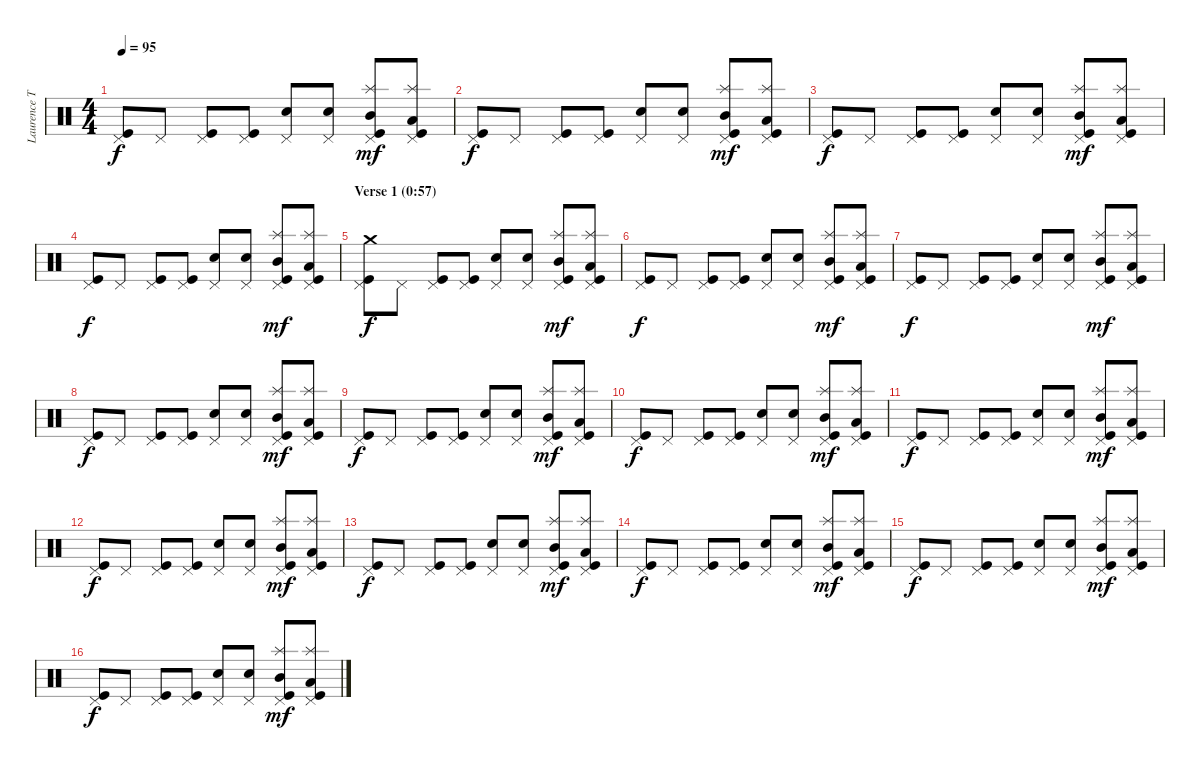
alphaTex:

\track ("Laurence Tolhurst (drums)" "Laurence T") {instrument percussion}
\staff {score}
\articulation defaults
\ts (4 4)
\tempo 95
\clef neutral
\ks c
("Pedal Hi-Hat (hit)" "Kick (hit)").8{dy f} "Pedal Hi-Hat (hit)".8 ("Pedal Hi-Hat (hit)" "Kick (hit)").8 ("Pedal Hi-Hat (hit)" "Kick (hit)").8 ("Pedal Hi-Hat (hit)" "Snare (hit) 2").8 ("Pedal Hi-Hat (hit)" "Snare (hit) 2").8 ("Splash (hit)" "Mid Tom (hit)" "Pedal Hi-Hat (hit)" "Kick (hit)").8{dy mf} ("Splash (hit)" "Low Tom (hit)" "Pedal Hi-Hat (hit)" "Kick (hit)").8 |
("Pedal Hi-Hat (hit)" "Kick (hit)").8{dy f} "Pedal Hi-Hat (hit)".8 ("Pedal Hi-Hat (hit)" "Kick (hit)").8 ("Pedal Hi-Hat (hit)" "Kick (hit)").8 ("Pedal Hi-Hat (hit)" "Snare (hit) 2").8 ("Pedal Hi-Hat (hit)" "Snare (hit) 2").8 ("Splash (hit)" "Mid Tom (hit)" "Pedal Hi-Hat (hit)" "Kick (hit)").8{dy mf} ("Splash (hit)" "Low Tom (hit)" "Pedal Hi-Hat (hit)" "Kick (hit)").8 |
("Pedal Hi-Hat (hit)" "Kick (hit)").8{dy f} "Pedal Hi-Hat (hit)".8 ("Pedal Hi-Hat (hit)" "Kick (hit)").8 ("Pedal Hi-Hat (hit)" "Kick (hit)").8 ("Pedal Hi-Hat (hit)" "Snare (hit) 2").8 ("Pedal Hi-Hat (hit)" "Snare (hit) 2").8 ("Splash (hit)" "Mid Tom (hit)" "Pedal Hi-Hat (hit)" "Kick (hit)").8{dy mf} ("Splash (hit)" "Low Tom (hit)" "Pedal Hi-Hat (hit)" "Kick (hit)").8 |
("Pedal Hi-Hat (hit)" "Kick (hit)").8{dy f} "Pedal Hi-Hat (hit)".8 ("Pedal Hi-Hat (hit)" "Kick (hit)").8 ("Pedal Hi-Hat (hit)" "Kick (hit)").8 ("Pedal Hi-Hat (hit)" "Snare (hit) 2").8 ("Pedal Hi-Hat (hit)" "Snare (hit) 2").8 ("Splash (hit)" "Mid Tom (hit)" "Pedal Hi-Hat (hit)" "Kick (hit)").8{dy mf} ("Splash (hit)" "Low Tom (hit)" "Pedal Hi-Hat (hit)" "Kick (hit)").8 |
\section ("" "Verse 1 (0:57)")
("Crash medium (hit)" "Pedal Hi-Hat (hit)" "Kick (hit)").8{dy f} "Pedal Hi-Hat (hit)".8 ("Pedal Hi-Hat (hit)" "Kick (hit)").8 ("Pedal Hi-Hat (hit)" "Kick (hit)").8 ("Pedal Hi-Hat (hit)" "Snare (hit) 2").8 ("Pedal Hi-Hat (hit)" "Snare (hit) 2").8 ("Splash (hit)" "Mid Tom (hit)" "Pedal Hi-Hat (hit)" "Kick (hit)").8{dy mf} ("Splash (hit)" "Low Tom (hit)" "Pedal Hi-Hat (hit)" "Kick (hit)").8 |
("Pedal Hi-Hat (hit)" "Kick (hit)").8{dy f} "Pedal Hi-Hat (hit)".8 ("Pedal Hi-Hat (hit)" "Kick (hit)").8 ("Pedal Hi-Hat (hit)" "Kick (hit)").8 ("Pedal Hi-Hat (hit)" "Snare (hit) 2").8 ("Pedal Hi-Hat (hit)" "Snare (hit) 2").8 ("Splash (hit)" "Mid Tom (hit)" "Pedal Hi-Hat (hit)" "Kick (hit)").8{dy mf} ("Splash (hit)" "Low Tom (hit)" "Pedal Hi-Hat (hit)" "Kick (hit)").8 |
("Pedal Hi-Hat (hit)" "Kick (hit)").8{dy f} "Pedal Hi-Hat (hit)".8 ("Pedal Hi-Hat (hit)" "Kick (hit)").8 ("Pedal Hi-Hat (hit)" "Kick (hit)").8 ("Pedal Hi-Hat (hit)" "Snare (hit) 2").8 ("Pedal Hi-Hat (hit)" "Snare (hit) 2").8 ("Splash (hit)" "Mid Tom (hit)" "Pedal Hi-Hat (hit)" "Kick (hit)").8{dy mf} ("Splash (hit)" "Low Tom (hit)" "Pedal Hi-Hat (hit)" "Kick (hit)").8 |
("Pedal Hi-Hat (hit)" "Kick (hit)").8{dy f} "Pedal Hi-Hat (hit)".8 ("Pedal Hi-Hat (hit)" "Kick (hit)").8 ("Pedal Hi-Hat (hit)" "Kick (hit)").8 ("Pedal Hi-Hat (hit)" "Snare (hit) 2").8 ("Pedal Hi-Hat (hit)" "Snare (hit) 2").8 ("Splash (hit)" "Mid Tom (hit)" "Pedal Hi-Hat (hit)" "Kick (hit)").8{dy mf} ("Splash (hit)" "Low Tom (hit)" "Pedal Hi-Hat (hit)" "Kick (hit)").8 |
("Pedal Hi-Hat (hit)" "Kick (hit)").8{dy f} "Pedal Hi-Hat (hit)".8 ("Pedal Hi-Hat (hit)" "Kick (hit)").8 ("Pedal Hi-Hat (hit)" "Kick (hit)").8 ("Pedal Hi-Hat (hit)" "Snare (hit) 2").8 ("Pedal Hi-Hat (hit)" "Snare (hit) 2").8 ("Splash (hit)" "Mid Tom (hit)" "Pedal Hi-Hat (hit)" "Kick (hit)").8{dy mf} ("Splash (hit)" "Low Tom (hit)" "Pedal Hi-Hat (hit)" "Kick (hit)").8 |
("Pedal Hi-Hat (hit)" "Kick (hit)").8{dy f} "Pedal Hi-Hat (hit)".8 ("Pedal Hi-Hat (hit)" "Kick (hit)").8 ("Pedal Hi-Hat (hit)" "Kick (hit)").8 ("Pedal Hi-Hat (hit)" "Snare (hit) 2").8 ("Pedal Hi-Hat (hit)" "Snare (hit) 2").8 ("Splash (hit)" "Mid Tom (hit)" "Pedal Hi-Hat (hit)" "Kick (hit)").8{dy mf} ("Splash (hit)" "Low Tom (hit)" "Pedal Hi-Hat (hit)" "Kick (hit)").8 |
("Pedal Hi-Hat (hit)" "Kick (hit)").8{dy f} "Pedal Hi-Hat (hit)".8 ("Pedal Hi-Hat (hit)" "Kick (hit)").8 ("Pedal Hi-Hat (hit)" "Kick (hit)").8 ("Pedal Hi-Hat (hit)" "Snare (hit) 2").8 ("Pedal Hi-Hat (hit)" "Snare (hit) 2").8 ("Splash (hit)" "Mid Tom (hit)" "Pedal Hi-Hat (hit)" "Kick (hit)").8{dy mf} ("Splash (hit)" "Low Tom (hit)" "Pedal Hi-Hat (hit)" "Kick (hit)").8 |
("Pedal Hi-Hat (hit)" "Kick (hit)").8{dy f} "Pedal Hi-Hat (hit)".8 ("Pedal Hi-Hat (hit)" "Kick (hit)").8 ("Pedal Hi-Hat (hit)" "Kick (hit)").8 ("Pedal Hi-Hat (hit)" "Snare (hit) 2").8 ("Pedal Hi-Hat (hit)" "Snare (hit) 2").8 ("Splash (hit)" "Mid Tom (hit)" "Pedal Hi-Hat (hit)" "Kick (hit)").8{dy mf} ("Splash (hit)" "Low Tom (hit)" "Pedal Hi-Hat (hit)" "Kick (hit)").8 |
("Pedal Hi-Hat (hit)" "Kick (hit)").8{dy f} "Pedal Hi-Hat (hit)".8 ("Pedal Hi-Hat (hit)" "Kick (hit)").8 ("Pedal Hi-Hat (hit)" "Kick (hit)").8 ("Pedal Hi-Hat (hit)" "Snare (hit) 2").8 ("Pedal Hi-Hat (hit)" "Snare (hit) 2").8 ("Splash (hit)" "Mid Tom (hit)" "Pedal Hi-Hat (hit)" "Kick (hit)").8{dy mf} ("Splash (hit)" "Low Tom (hit)" "Pedal Hi-Hat (hit)" "Kick (hit)").8 |
("Pedal Hi-Hat (hit)" "Kick (hit)").8{dy f} "Pedal Hi-Hat (hit)".8 ("Pedal Hi-Hat (hit)" "Kick (hit)").8 ("Pedal Hi-Hat (hit)" "Kick (hit)").8 ("Pedal Hi-Hat (hit)" "Snare (hit) 2").8 ("Pedal Hi-Hat (hit)" "Snare (hit) 2").8 ("Splash (hit)" "Mid Tom (hit)" "Pedal Hi-Hat (hit)" "Kick (hit)").8{dy mf} ("Splash (hit)" "Low Tom (hit)" "Pedal Hi-Hat (hit)" "Kick (hit)").8 |
("Pedal Hi-Hat (hit)" "Kick (hit)").8{dy f} "Pedal Hi-Hat (hit)".8 ("Pedal Hi-Hat (hit)" "Kick (hit)").8 ("Pedal Hi-Hat (hit)" "Kick (hit)").8 ("Pedal Hi-Hat (hit)" "Snare (hit) 2").8 ("Pedal Hi-Hat (hit)" "Snare (hit) 2").8 ("Splash (hit)" "Mid Tom (hit)" "Pedal Hi-Hat (hit)" "Kick (hit)").8{dy mf} ("Splash (hit)" "Low Tom (hit)" "Pedal Hi-Hat (hit)" "Kick (hit)").8 |
("Pedal Hi-Hat (hit)" "Kick (hit)").8{dy f} "Pedal Hi-Hat (hit)".8 ("Pedal Hi-Hat (hit)" "Kick (hit)").8 ("Pedal Hi-Hat (hit)" "Kick (hit)").8 ("Pedal Hi-Hat (hit)" "Snare (hit) 2").8 ("Pedal Hi-Hat (hit)" "Snare (hit) 2").8 ("Splash (hit)" "Mid Tom (hit)" "Pedal Hi-Hat (hit)" "Kick (hit)").8{dy mf} ("Splash (hit)" "Low Tom (hit)" "Pedal Hi-Hat (hit)" "Kick (hit)").8
